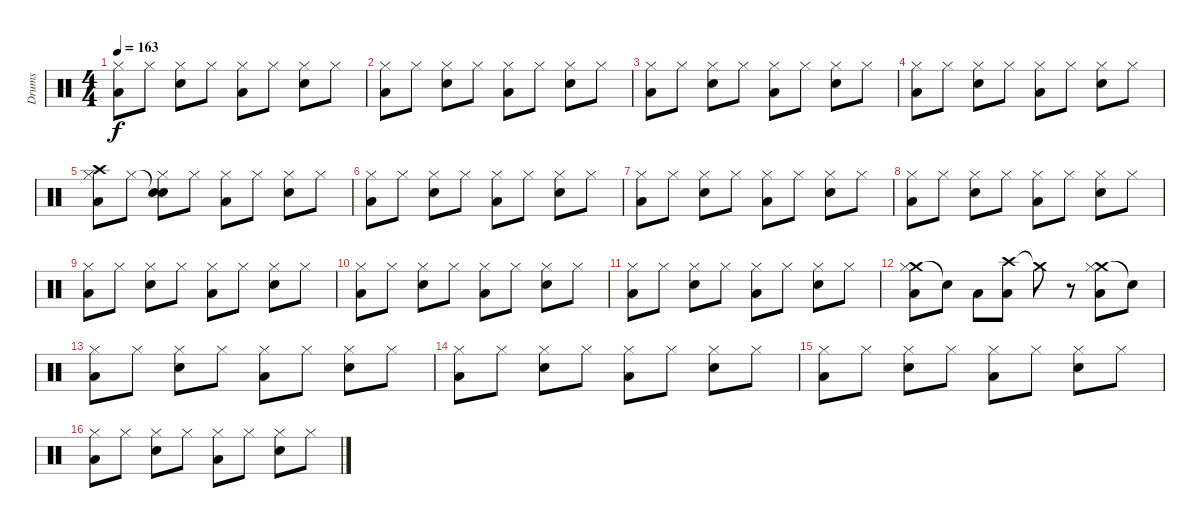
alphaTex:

\track ("Drums" "Drums") {instrument percussion}
\staff {score}
\articulation defaults
\ts (4 4)
\tempo 163
\clef neutral
\ks c
("Low Tom (hit)" "Hi-Hat (closed)").8{dy f} "Hi-Hat (closed)".8 ("Snare (hit) 2" "Hi-Hat (closed)").8 "Hi-Hat (closed)".8 ("Low Tom (hit)" "Hi-Hat (closed)").8 "Hi-Hat (closed)".8 ("Snare (hit) 2" "Hi-Hat (closed)").8 "Hi-Hat (closed)".8 |
("Low Tom (hit)" "Hi-Hat (closed)").8 "Hi-Hat (closed)".8 ("Snare (hit) 2" "Hi-Hat (closed)").8 "Hi-Hat (closed)".8 ("Low Tom (hit)" "Hi-Hat (closed)").8 "Hi-Hat (closed)".8 ("Snare (hit) 2" "Hi-Hat (closed)").8 "Hi-Hat (closed)".8 |
("Low Tom (hit)" "Hi-Hat (closed)").8 "Hi-Hat (closed)".8 ("Snare (hit) 2" "Hi-Hat (closed)").8 "Hi-Hat (closed)".8 ("Low Tom (hit)" "Hi-Hat (closed)").8 "Hi-Hat (closed)".8 ("Snare (hit) 2" "Hi-Hat (closed)").8 "Hi-Hat (closed)".8 |
("Low Tom (hit)" "Hi-Hat (closed)").8 "Hi-Hat (closed)".8 ("Snare (hit) 2" "Hi-Hat (closed)").8 "Hi-Hat (closed)".8 ("Low Tom (hit)" "Hi-Hat (closed)").8 "Hi-Hat (closed)".8 ("Snare (hit) 2" "Hi-Hat (closed)").8 "Hi-Hat (closed)".8 |
("Crash high (hit)" "Low Tom (hit)" "Hi-Hat (closed)").8 "Hi-Hat (closed)".8 ("Snare (hit)"{t} "Snare (hit) 2" "Hi-Hat (closed)").8 "Hi-Hat (closed)".8 ("Low Tom (hit)" "Hi-Hat (closed)").8 "Hi-Hat (closed)".8 ("Snare (hit) 2" "Hi-Hat (closed)").8 "Hi-Hat (closed)".8 |
("Low Tom (hit)" "Hi-Hat (closed)").8 "Hi-Hat (closed)".8 ("Snare (hit) 2" "Hi-Hat (closed)").8 "Hi-Hat (closed)".8 ("Low Tom (hit)" "Hi-Hat (closed)").8 "Hi-Hat (closed)".8 ("Snare (hit) 2" "Hi-Hat (closed)").8 "Hi-Hat (closed)".8 |
("Low Tom (hit)" "Hi-Hat (closed)").8 "Hi-Hat (closed)".8 ("Snare (hit) 2" "Hi-Hat (closed)").8 "Hi-Hat (closed)".8 ("Low Tom (hit)" "Hi-Hat (closed)").8 "Hi-Hat (closed)".8 ("Snare (hit) 2" "Hi-Hat (closed)").8 "Hi-Hat (closed)".8 |
("Low Tom (hit)" "Hi-Hat (closed)").8 "Hi-Hat (closed)".8 ("Snare (hit) 2" "Hi-Hat (closed)").8 "Hi-Hat (closed)".8 ("Low Tom (hit)" "Hi-Hat (closed)").8 "Hi-Hat (closed)".8 ("Snare (hit) 2" "Hi-Hat (closed)").8 "Hi-Hat (closed)".8 |
("Low Tom (hit)" "Hi-Hat (closed)").8 "Hi-Hat (closed)".8 ("Snare (hit) 2" "Hi-Hat (closed)").8 "Hi-Hat (closed)".8 ("Low Tom (hit)" "Hi-Hat (closed)").8 "Hi-Hat (closed)".8 ("Snare (hit) 2" "Hi-Hat (closed)").8 "Hi-Hat (closed)".8 |
("Low Tom (hit)" "Hi-Hat (closed)").8 "Hi-Hat (closed)".8 ("Snare (hit) 2" "Hi-Hat (closed)").8 "Hi-Hat (closed)".8 ("Low Tom (hit)" "Hi-Hat (closed)").8 "Hi-Hat (closed)".8 ("Snare (hit) 2" "Hi-Hat (closed)").8 "Hi-Hat (closed)".8 |
("Low Tom (hit)" "Hi-Hat (closed)").8 "Hi-Hat (closed)".8 ("Snare (hit) 2" "Hi-Hat (closed)").8 "Hi-Hat (closed)".8 ("Low Tom (hit)" "Hi-Hat (closed)").8 "Hi-Hat (closed)".8 ("Snare (hit) 2" "Hi-Hat (closed)").8 "Hi-Hat (closed)".8 |
("Crash medium (hit)" "Low Tom (hit)" "Hi-Hat (closed)").8 "Snare (hit)"{t}.8 "Low Tom (hit)".8 ("Crash high (hit)" "Low Tom (hit)").8 "Crash medium (hit)"{t}.8 r.8 ("Crash medium (hit)" "Low Tom (hit)" "Hi-Hat (closed)").8 "Snare (hit)"{t}.8 |
("Low Tom (hit)" "Hi-Hat (closed)").8 "Hi-Hat (closed)".8 ("Snare (hit) 2" "Hi-Hat (closed)").8 "Hi-Hat (closed)".8 ("Low Tom (hit)" "Hi-Hat (closed)").8 "Hi-Hat (closed)".8 ("Snare (hit) 2" "Hi-Hat (closed)").8 "Hi-Hat (closed)".8 |
("Low Tom (hit)" "Hi-Hat (closed)").8 "Hi-Hat (closed)".8 ("Snare (hit) 2" "Hi-Hat (closed)").8 "Hi-Hat (closed)".8 ("Low Tom (hit)" "Hi-Hat (closed)").8 "Hi-Hat (closed)".8 ("Snare (hit) 2" "Hi-Hat (closed)").8 "Hi-Hat (closed)".8 |
("Low Tom (hit)" "Hi-Hat (closed)").8 "Hi-Hat (closed)".8 ("Snare (hit) 2" "Hi-Hat (closed)").8 "Hi-Hat (closed)".8 ("Low Tom (hit)" "Hi-Hat (closed)").8 "Hi-Hat (closed)".8 ("Snare (hit) 2" "Hi-Hat (closed)").8 "Hi-Hat (closed)".8 |
("Low Tom (hit)" "Hi-Hat (closed)").8 "Hi-Hat (closed)".8 ("Snare (hit) 2" "Hi-Hat (closed)").8 "Hi-Hat (closed)".8 ("Low Tom (hit)" "Hi-Hat (closed)").8 "Hi-Hat (closed)".8 ("Snare (hit) 2" "Hi-Hat (closed)").8 "Hi-Hat (closed)".8
